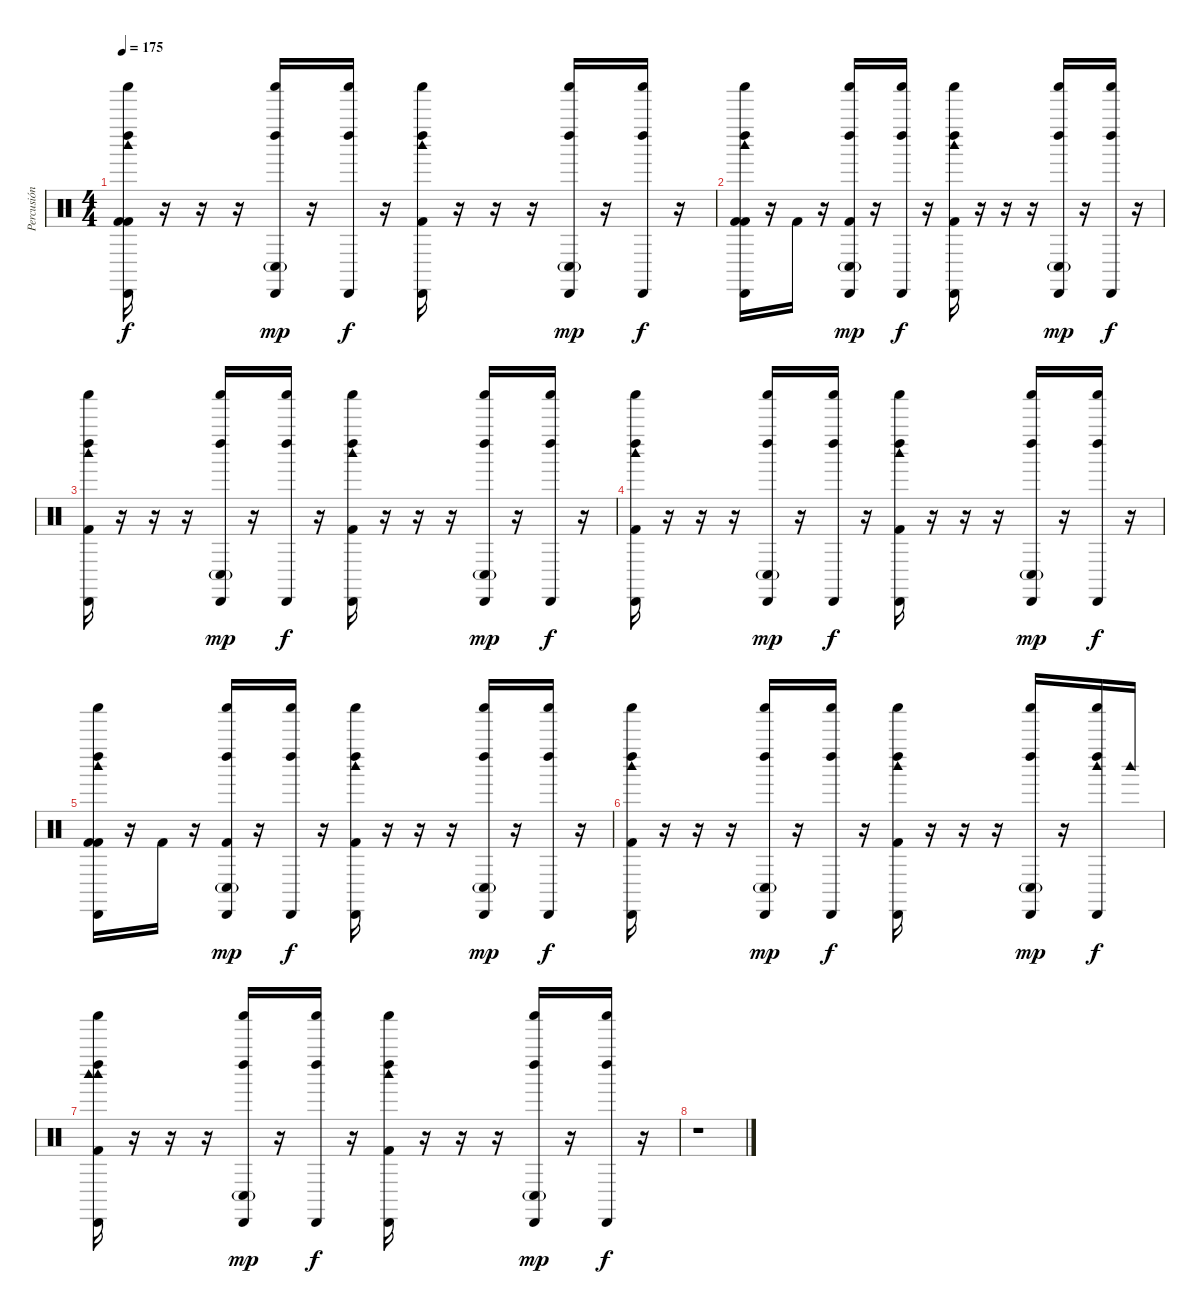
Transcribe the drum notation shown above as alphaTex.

\track ("Percusión" "Percusión") {instrument percussion}
\staff {score}
\articulation defaults
\ts (4 4)
\tempo 175
\clef neutral
\ks c
("Kick (hit) 2" "Cabasa (hit)" "Shaker (hit)" "Kick (hit) 2" "Left Maraca (hit)" "Woodblock high (hit)").16{dy f} r.16 r.16 r.16 ("Cabasa (hit)" "Shaker (hit)" "Conga low (hit)"{g} "Left Maraca (hit)").16{dy mp} r.16 ("Cabasa (hit)" "Shaker (hit)" "Left Maraca (hit)").16{dy f} r.16 ("Cabasa (hit)" "Shaker (hit)" "Kick (hit) 2" "Left Maraca (hit)" "Woodblock high (hit)").16 r.16 r.16 r.16 ("Cabasa (hit)" "Shaker (hit)" "Conga low (hit)"{g} "Left Maraca (hit)").16{dy mp} r.16 ("Cabasa (hit)" "Shaker (hit)" "Left Maraca (hit)").16{dy f} r.16 |
("Kick (hit) 2" "Cabasa (hit)" "Shaker (hit)" "Kick (hit) 2" "Left Maraca (hit)" "Woodblock high (hit)").16 r.16 "Kick (hit) 2".16 r.16 ("Kick (hit) 2" "Cabasa (hit)" "Shaker (hit)" "Conga low (hit)"{g} "Left Maraca (hit)").16{dy mp} r.16 ("Cabasa (hit)" "Shaker (hit)" "Left Maraca (hit)").16{dy f} r.16 ("Cabasa (hit)" "Shaker (hit)" "Kick (hit) 2" "Left Maraca (hit)" "Woodblock high (hit)").16 r.16 r.16 r.16 ("Cabasa (hit)" "Shaker (hit)" "Conga low (hit)"{g} "Left Maraca (hit)").16{dy mp} r.16 ("Cabasa (hit)" "Shaker (hit)" "Left Maraca (hit)").16{dy f} r.16 |
("Cabasa (hit)" "Shaker (hit)" "Kick (hit) 2" "Left Maraca (hit)" "Woodblock high (hit)").16 r.16 r.16 r.16 ("Cabasa (hit)" "Shaker (hit)" "Conga low (hit)"{g} "Left Maraca (hit)").16{dy mp} r.16 ("Cabasa (hit)" "Shaker (hit)" "Left Maraca (hit)").16{dy f} r.16 ("Cabasa (hit)" "Shaker (hit)" "Kick (hit) 2" "Left Maraca (hit)" "Woodblock high (hit)").16 r.16 r.16 r.16 ("Cabasa (hit)" "Shaker (hit)" "Conga low (hit)"{g} "Left Maraca (hit)").16{dy mp} r.16 ("Cabasa (hit)" "Shaker (hit)" "Left Maraca (hit)").16{dy f} r.16 |
("Cabasa (hit)" "Shaker (hit)" "Kick (hit) 2" "Left Maraca (hit)" "Woodblock high (hit)").16 r.16 r.16 r.16 ("Cabasa (hit)" "Shaker (hit)" "Conga low (hit)"{g} "Left Maraca (hit)").16{dy mp} r.16 ("Cabasa (hit)" "Shaker (hit)" "Left Maraca (hit)").16{dy f} r.16 ("Cabasa (hit)" "Shaker (hit)" "Kick (hit) 2" "Left Maraca (hit)" "Woodblock high (hit)").16 r.16 r.16 r.16 ("Cabasa (hit)" "Shaker (hit)" "Conga low (hit)"{g} "Left Maraca (hit)").16{dy mp} r.16 ("Cabasa (hit)" "Shaker (hit)" "Left Maraca (hit)").16{dy f} r.16 |
("Kick (hit) 2" "Cabasa (hit)" "Shaker (hit)" "Kick (hit) 2" "Left Maraca (hit)" "Woodblock high (hit)").16 r.16 "Kick (hit) 2".16 r.16 ("Kick (hit) 2" "Cabasa (hit)" "Shaker (hit)" "Conga low (hit)"{g} "Left Maraca (hit)").16{dy mp} r.16 ("Cabasa (hit)" "Shaker (hit)" "Left Maraca (hit)").16{dy f} r.16 ("Cabasa (hit)" "Shaker (hit)" "Kick (hit) 2" "Left Maraca (hit)" "Woodblock high (hit)").16 r.16 r.16 r.16 ("Cabasa (hit)" "Shaker (hit)" "Conga low (hit)"{g} "Left Maraca (hit)").16{dy mp} r.16 ("Cabasa (hit)" "Shaker (hit)" "Left Maraca (hit)").16{dy f} r.16 |
("Cabasa (hit)" "Shaker (hit)" "Kick (hit) 2" "Left Maraca (hit)" "Woodblock high (hit)").16 r.16 r.16 r.16 ("Cabasa (hit)" "Shaker (hit)" "Conga low (hit)"{g} "Left Maraca (hit)").16{dy mp} r.16 ("Cabasa (hit)" "Shaker (hit)" "Left Maraca (hit)").16{dy f} r.16 ("Cabasa (hit)" "Shaker (hit)" "Kick (hit) 2" "Left Maraca (hit)" "Woodblock high (hit)").16 r.16 r.16 r.16 ("Cabasa (hit)" "Shaker (hit)" "Conga low (hit)"{g} "Left Maraca (hit)").16{dy mp} r.16 ("Woodblock high (hit)" "Cabasa (hit)" "Shaker (hit)" "Left Maraca (hit)").16{dy f} "Woodblock high (hit)".16 |
("Woodblock high (hit)" "Cabasa (hit)" "Shaker (hit)" "Kick (hit) 2" "Left Maraca (hit)" "Woodblock high (hit)").16 r.16 r.16 r.16 ("Cabasa (hit)" "Shaker (hit)" "Conga low (hit)"{g} "Left Maraca (hit)").16{dy mp} r.16 ("Cabasa (hit)" "Shaker (hit)" "Left Maraca (hit)").16{dy f} r.16 ("Cabasa (hit)" "Shaker (hit)" "Kick (hit) 2" "Left Maraca (hit)" "Woodblock high (hit)").16 r.16 r.16 r.16 ("Cabasa (hit)" "Shaker (hit)" "Conga low (hit)"{g} "Left Maraca (hit)").16{dy mp} r.16 ("Cabasa (hit)" "Shaker (hit)" "Left Maraca (hit)").16{dy f} r.16 |
r.1
